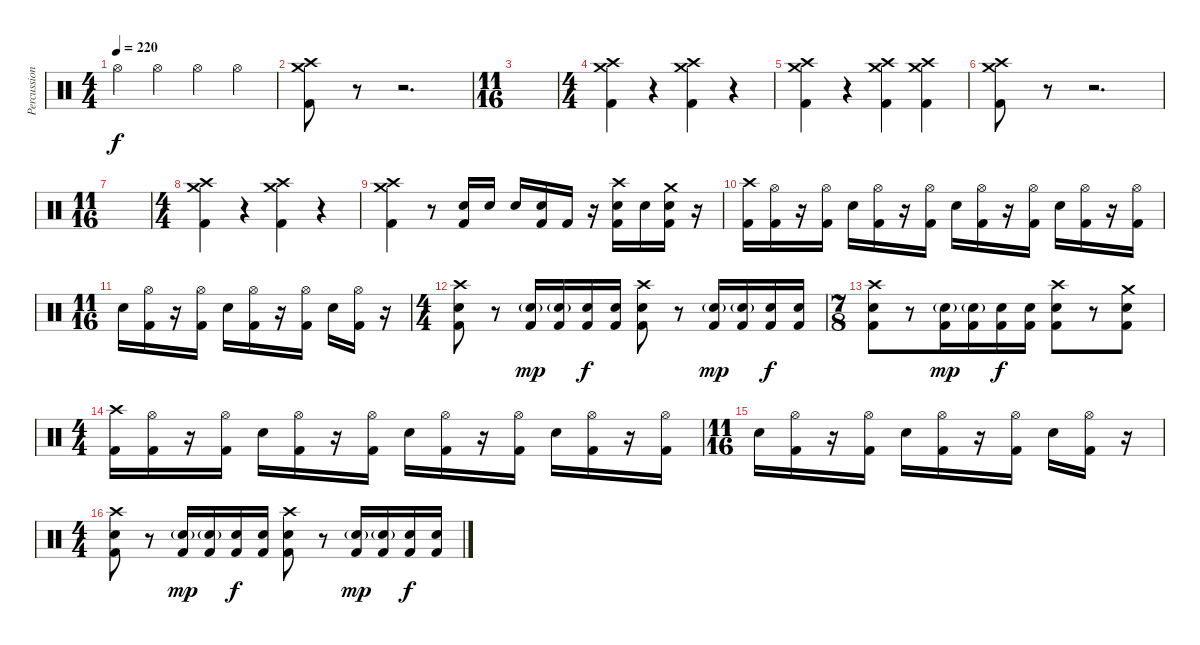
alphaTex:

\track ("Percussioni" "Percussion") {instrument percussion}
\staff {score}
\articulation defaults
\ts (4 4)
\tempo 220
\clef neutral
\ks c "Hi-Hat (open)".4{dy f} "Hi-Hat (open)".4 "Hi-Hat (open)".4 "Hi-Hat (open)".4
|
("Crash high (hit)" "Crash medium (hit)" "Kick (hit) 2").8 r.8 r.2{d} |
\ts (11 16)
|
\ts (4 4)
("Crash high (hit)" "Crash medium (hit)" "Kick (hit) 2").4 r.4 ("Crash high (hit)" "Crash medium (hit)" "Kick (hit) 2").4 r.4 |
("Crash high (hit)" "Crash medium (hit)" "Kick (hit) 2").4 r.4 ("Crash high (hit)" "Crash medium (hit)" "Kick (hit) 2").4 ("Crash medium (hit)" "Crash high (hit)" "Kick (hit) 2").4 |
("Crash high (hit)" "Crash medium (hit)" "Kick (hit) 2").8 r.8 r.2{d} |
\ts (11 16)
|
\ts (4 4)
("Crash high (hit)" "Crash medium (hit)" "Kick (hit) 2").4 r.4 ("Crash high (hit)" "Crash medium (hit)" "Kick (hit) 2").4 r.4 |
("Crash high (hit)" "Crash medium (hit)" "Kick (hit) 2").4 r.8 ("Snare (hit) 2" "Kick (hit) 2").16 "Snare (hit) 2".16 "Snare (hit) 2".16 ("Snare (hit) 2" "Kick (hit) 2").16 "Kick (hit) 2".16 r.16 ("Crash high (hit)" "Snare (hit) 2" "Kick (hit) 2").16 "Snare (hit) 2".16 ("Crash medium (hit)" "Snare (hit) 2" "Kick (hit) 2").16 r.16 |
("Crash high (hit)" "Kick (hit) 2").16 ("Hi-Hat (open)" "Kick (hit) 2").16 r.16 ("Hi-Hat (open)" "Kick (hit) 2").16 "Snare (hit) 2".16 ("Hi-Hat (open)" "Kick (hit) 2").16 r.16 ("Hi-Hat (open)" "Kick (hit) 2").16 "Snare (hit) 2".16 ("Hi-Hat (open)" "Kick (hit) 2").16 r.16 ("Hi-Hat (open)" "Kick (hit) 2").16 "Snare (hit) 2".16 ("Hi-Hat (open)" "Kick (hit) 2").16 r.16 ("Hi-Hat (open)" "Kick (hit) 2").16 |
\ts (11 16)
"Snare (hit) 2".16 ("Hi-Hat (open)" "Kick (hit) 2").16 r.16 ("Hi-Hat (open)" "Kick (hit) 2").16 "Snare (hit) 2".16 ("Hi-Hat (open)" "Kick (hit) 2").16 r.16 ("Hi-Hat (open)" "Kick (hit) 2").16 "Snare (hit) 2".16 ("Hi-Hat (open)" "Kick (hit) 2").16 r.16 |
\ts (4 4)
("Crash high (hit)" "Snare (hit) 2" "Kick (hit) 2").8 r.8 ("Snare (hit) 2"{g} "Kick (hit) 2").16{dy mp} ("Snare (hit) 2"{g} "Kick (hit) 2").16 ("Snare (hit) 2" "Kick (hit) 2").16{dy f} ("Snare (hit) 2" "Kick (hit) 2").16 ("Crash high (hit)" "Snare (hit) 2" "Kick (hit) 2").8 r.8 ("Snare (hit) 2"{g} "Kick (hit) 2").16{dy mp} ("Snare (hit) 2"{g} "Kick (hit) 2").16 ("Snare (hit) 2" "Kick (hit) 2").16{dy f} ("Snare (hit) 2" "Kick (hit) 2").16 |
\ts (7 8)
("Crash high (hit)" "Snare (hit) 2" "Kick (hit) 2").8 r.8 ("Snare (hit) 2"{g} "Kick (hit) 2").16{dy mp} ("Snare (hit) 2"{g} "Kick (hit) 2").16 ("Snare (hit) 2" "Kick (hit) 2").16{dy f} ("Snare (hit) 2" "Kick (hit) 2").16 ("Crash high (hit)" "Snare (hit) 2" "Kick (hit) 2").8 r.8 ("Crash medium (hit)" "Snare (hit) 2" "Kick (hit) 2").8 |
\ts (4 4)
("Crash high (hit)" "Kick (hit) 2").16 ("Hi-Hat (open)" "Kick (hit) 2").16 r.16 ("Hi-Hat (open)" "Kick (hit) 2").16 "Snare (hit) 2".16 ("Hi-Hat (open)" "Kick (hit) 2").16 r.16 ("Hi-Hat (open)" "Kick (hit) 2").16 "Snare (hit) 2".16 ("Hi-Hat (open)" "Kick (hit) 2").16 r.16 ("Hi-Hat (open)" "Kick (hit) 2").16 "Snare (hit) 2".16 ("Hi-Hat (open)" "Kick (hit) 2").16 r.16 ("Hi-Hat (open)" "Kick (hit) 2").16 |
\ts (11 16)
"Snare (hit) 2".16 ("Hi-Hat (open)" "Kick (hit) 2").16 r.16 ("Hi-Hat (open)" "Kick (hit) 2").16 "Snare (hit) 2".16 ("Hi-Hat (open)" "Kick (hit) 2").16 r.16 ("Hi-Hat (open)" "Kick (hit) 2").16 "Snare (hit) 2".16 ("Hi-Hat (open)" "Kick (hit) 2").16 r.16 |
\ts (4 4)
("Crash high (hit)" "Snare (hit) 2" "Kick (hit) 2").8 r.8 ("Snare (hit) 2"{g} "Kick (hit) 2").16{dy mp} ("Snare (hit) 2"{g} "Kick (hit) 2").16 ("Snare (hit) 2" "Kick (hit) 2").16{dy f} ("Snare (hit) 2" "Kick (hit) 2").16 ("Crash high (hit)" "Snare (hit) 2" "Kick (hit) 2").8 r.8 ("Snare (hit) 2"{g} "Kick (hit) 2").16{dy mp} ("Snare (hit) 2"{g} "Kick (hit) 2").16 ("Snare (hit) 2" "Kick (hit) 2").16{dy f} ("Snare (hit) 2" "Kick (hit) 2").16
